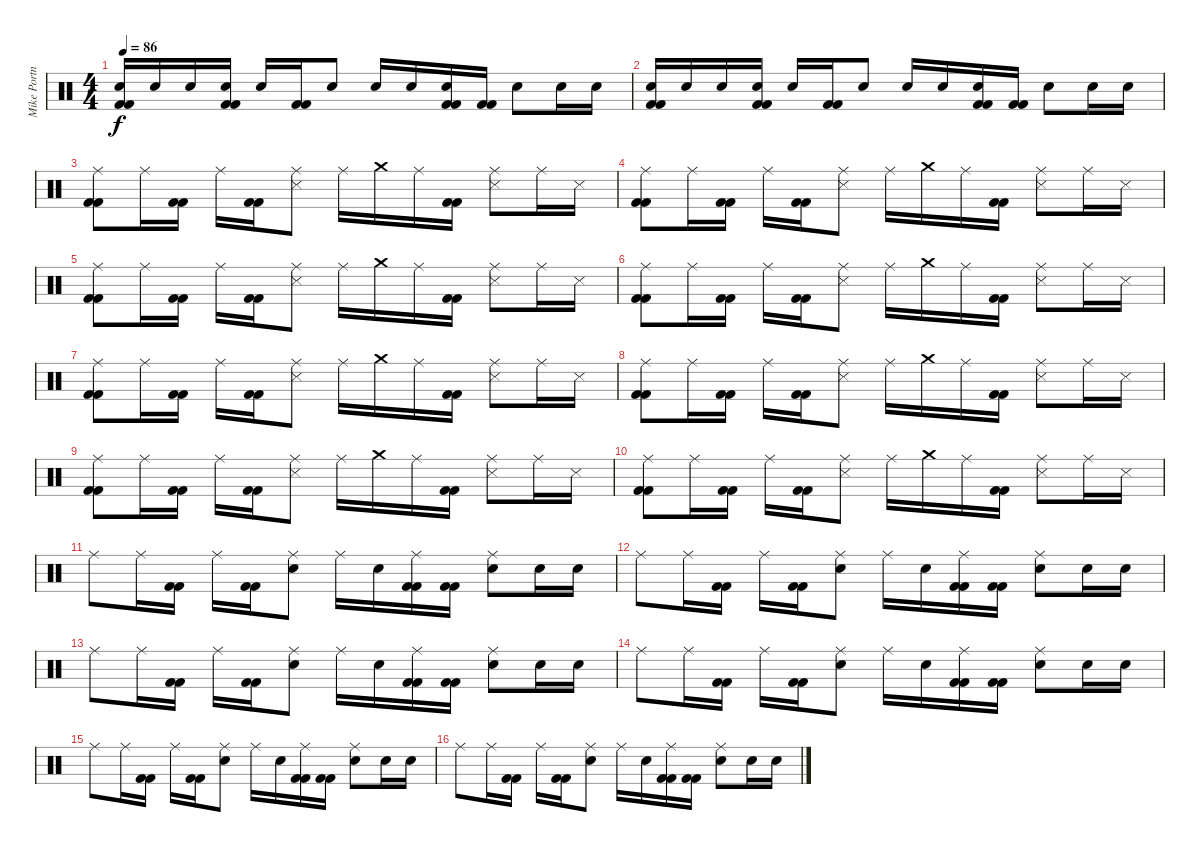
\track ("Mike Portnoy - Drum" "Mike Portn") {instrument percussion}
\staff {score}
\articulation defaults
\ts (4 4)
\tempo 86
\clef neutral
\ks c
("Snare (hit) 2" "Kick (hit) 2" "Kick (hit) 2").16{dy f} "Snare (hit) 2".16 "Snare (hit) 2".16 ("Snare (hit) 2" "Kick (hit) 2" "Kick (hit) 2").16 "Snare (hit) 2".16 ("Kick (hit) 2" "Kick (hit) 2").16 "Snare (hit) 2".8 "Snare (hit) 2".16 "Snare (hit) 2".16 ("Snare (hit) 2" "Kick (hit) 2" "Kick (hit) 2").16 ("Kick (hit) 2" "Kick (hit) 2").16 "Snare (hit) 2".8 "Snare (hit) 2".16 "Snare (hit) 2".16 |
("Snare (hit) 2" "Kick (hit) 2" "Kick (hit) 2").16 "Snare (hit) 2".16 "Snare (hit) 2".16 ("Snare (hit) 2" "Kick (hit) 2" "Kick (hit) 2").16 "Snare (hit) 2".16 ("Kick (hit) 2" "Kick (hit) 2").16 "Snare (hit) 2".8 "Snare (hit) 2".16 "Snare (hit) 2".16 ("Snare (hit) 2" "Kick (hit) 2" "Kick (hit) 2").16 ("Kick (hit) 2" "Kick (hit) 2").16 "Snare (hit) 2".8 "Snare (hit) 2".16 "Snare (hit) 2".16 |
("Ride (middle)" "Kick (hit) 2" "Kick (hit) 2").8 "Ride (middle)".16 ("Kick (hit) 2" "Kick (hit) 2").16 "Ride (middle)".16 ("Kick (hit) 2" "Kick (hit) 2").16 ("Ride (middle)" "Snare (side stick) 3").8 "Ride (middle)".16 "Crash medium (hit)".16 "Ride (middle)".16 ("Kick (hit) 2" "Kick (hit) 2").16 ("Ride (middle)" "Snare (side stick) 3").8 "Ride (middle)".16 "Snare (side stick) 3".16 |
("Ride (middle)" "Kick (hit) 2" "Kick (hit) 2").8 "Ride (middle)".16 ("Kick (hit) 2" "Kick (hit) 2").16 "Ride (middle)".16 ("Kick (hit) 2" "Kick (hit) 2").16 ("Ride (middle)" "Snare (side stick) 3").8 "Ride (middle)".16 "Crash medium (hit)".16 "Ride (middle)".16 ("Kick (hit) 2" "Kick (hit) 2").16 ("Ride (middle)" "Snare (side stick) 3").8 "Ride (middle)".16 "Snare (side stick) 3".16 |
("Ride (middle)" "Kick (hit) 2" "Kick (hit) 2").8 "Ride (middle)".16 ("Kick (hit) 2" "Kick (hit) 2").16 "Ride (middle)".16 ("Kick (hit) 2" "Kick (hit) 2").16 ("Ride (middle)" "Snare (side stick) 3").8 "Ride (middle)".16 "Crash medium (hit)".16 "Ride (middle)".16 ("Kick (hit) 2" "Kick (hit) 2").16 ("Ride (middle)" "Snare (side stick) 3").8 "Ride (middle)".16 "Snare (side stick) 3".16 |
("Ride (middle)" "Kick (hit) 2" "Kick (hit) 2").8 "Ride (middle)".16 ("Kick (hit) 2" "Kick (hit) 2").16 "Ride (middle)".16 ("Kick (hit) 2" "Kick (hit) 2").16 ("Ride (middle)" "Snare (side stick) 3").8 "Ride (middle)".16 "Crash medium (hit)".16 "Ride (middle)".16 ("Kick (hit) 2" "Kick (hit) 2").16 ("Ride (middle)" "Snare (side stick) 3").8 "Ride (middle)".16 "Snare (side stick) 3".16 |
("Ride (middle)" "Kick (hit) 2" "Kick (hit) 2").8 "Ride (middle)".16 ("Kick (hit) 2" "Kick (hit) 2").16 "Ride (middle)".16 ("Kick (hit) 2" "Kick (hit) 2").16 ("Ride (middle)" "Snare (side stick) 3").8 "Ride (middle)".16 "Crash medium (hit)".16 "Ride (middle)".16 ("Kick (hit) 2" "Kick (hit) 2").16 ("Ride (middle)" "Snare (side stick) 3").8 "Ride (middle)".16 "Snare (side stick) 3".16 |
("Ride (middle)" "Kick (hit) 2" "Kick (hit) 2").8 "Ride (middle)".16 ("Kick (hit) 2" "Kick (hit) 2").16 "Ride (middle)".16 ("Kick (hit) 2" "Kick (hit) 2").16 ("Ride (middle)" "Snare (side stick) 3").8 "Ride (middle)".16 "Crash medium (hit)".16 "Ride (middle)".16 ("Kick (hit) 2" "Kick (hit) 2").16 ("Ride (middle)" "Snare (side stick) 3").8 "Ride (middle)".16 "Snare (side stick) 3".16 |
("Ride (middle)" "Kick (hit) 2" "Kick (hit) 2").8 "Ride (middle)".16 ("Kick (hit) 2" "Kick (hit) 2").16 "Ride (middle)".16 ("Kick (hit) 2" "Kick (hit) 2").16 ("Ride (middle)" "Snare (side stick) 3").8 "Ride (middle)".16 "Crash medium (hit)".16 "Ride (middle)".16 ("Kick (hit) 2" "Kick (hit) 2").16 ("Ride (middle)" "Snare (side stick) 3").8 "Ride (middle)".16 "Snare (side stick) 3".16 |
("Ride (middle)" "Kick (hit) 2" "Kick (hit) 2").8 "Ride (middle)".16 ("Kick (hit) 2" "Kick (hit) 2").16 "Ride (middle)".16 ("Kick (hit) 2" "Kick (hit) 2").16 ("Ride (middle)" "Snare (side stick) 3").8 "Ride (middle)".16 "Crash medium (hit)".16 "Ride (middle)".16 ("Kick (hit) 2" "Kick (hit) 2").16 ("Ride (middle)" "Snare (side stick) 3").8 "Ride (middle)".16 "Snare (side stick) 3".16 |
"Ride (middle)".8 "Ride (middle)".16 ("Kick (hit) 2" "Kick (hit) 2").16 "Ride (middle)".16 ("Kick (hit) 2" "Kick (hit) 2").16 ("Ride (middle)" "Snare (hit) 2").8 "Ride (middle)".16 "Snare (hit) 2".16 ("Ride (middle)" "Kick (hit) 2" "Kick (hit) 2").16 ("Kick (hit) 2" "Kick (hit) 2").16 ("Ride (middle)" "Snare (hit) 2").8 "Snare (hit) 2".16 "Snare (hit) 2".16 |
"Ride (middle)".8 "Ride (middle)".16 ("Kick (hit) 2" "Kick (hit) 2").16 "Ride (middle)".16 ("Kick (hit) 2" "Kick (hit) 2").16 ("Ride (middle)" "Snare (hit) 2").8 "Ride (middle)".16 "Snare (hit) 2".16 ("Ride (middle)" "Kick (hit) 2" "Kick (hit) 2").16 ("Kick (hit) 2" "Kick (hit) 2").16 ("Ride (middle)" "Snare (hit) 2").8 "Snare (hit) 2".16 "Snare (hit) 2".16 |
"Ride (middle)".8 "Ride (middle)".16 ("Kick (hit) 2" "Kick (hit) 2").16 "Ride (middle)".16 ("Kick (hit) 2" "Kick (hit) 2").16 ("Ride (middle)" "Snare (hit) 2").8 "Ride (middle)".16 "Snare (hit) 2".16 ("Ride (middle)" "Kick (hit) 2" "Kick (hit) 2").16 ("Kick (hit) 2" "Kick (hit) 2").16 ("Ride (middle)" "Snare (hit) 2").8 "Snare (hit) 2".16 "Snare (hit) 2".16 |
"Ride (middle)".8 "Ride (middle)".16 ("Kick (hit) 2" "Kick (hit) 2").16 "Ride (middle)".16 ("Kick (hit) 2" "Kick (hit) 2").16 ("Ride (middle)" "Snare (hit) 2").8 "Ride (middle)".16 "Snare (hit) 2".16 ("Ride (middle)" "Kick (hit) 2" "Kick (hit) 2").16 ("Kick (hit) 2" "Kick (hit) 2").16 ("Ride (middle)" "Snare (hit) 2").8 "Snare (hit) 2".16 "Snare (hit) 2".16 |
"Ride (middle)".8 "Ride (middle)".16 ("Kick (hit) 2" "Kick (hit) 2").16 "Ride (middle)".16 ("Kick (hit) 2" "Kick (hit) 2").16 ("Ride (middle)" "Snare (hit) 2").8 "Ride (middle)".16 "Snare (hit) 2".16 ("Ride (middle)" "Kick (hit) 2" "Kick (hit) 2").16 ("Kick (hit) 2" "Kick (hit) 2").16 ("Ride (middle)" "Snare (hit) 2").8 "Snare (hit) 2".16 "Snare (hit) 2".16 |
"Ride (middle)".8 "Ride (middle)".16 ("Kick (hit) 2" "Kick (hit) 2").16 "Ride (middle)".16 ("Kick (hit) 2" "Kick (hit) 2").16 ("Ride (middle)" "Snare (hit) 2").8 "Ride (middle)".16 "Snare (hit) 2".16 ("Ride (middle)" "Kick (hit) 2" "Kick (hit) 2").16 ("Kick (hit) 2" "Kick (hit) 2").16 ("Ride (middle)" "Snare (hit) 2").8 "Snare (hit) 2".16 "Snare (hit) 2".16
